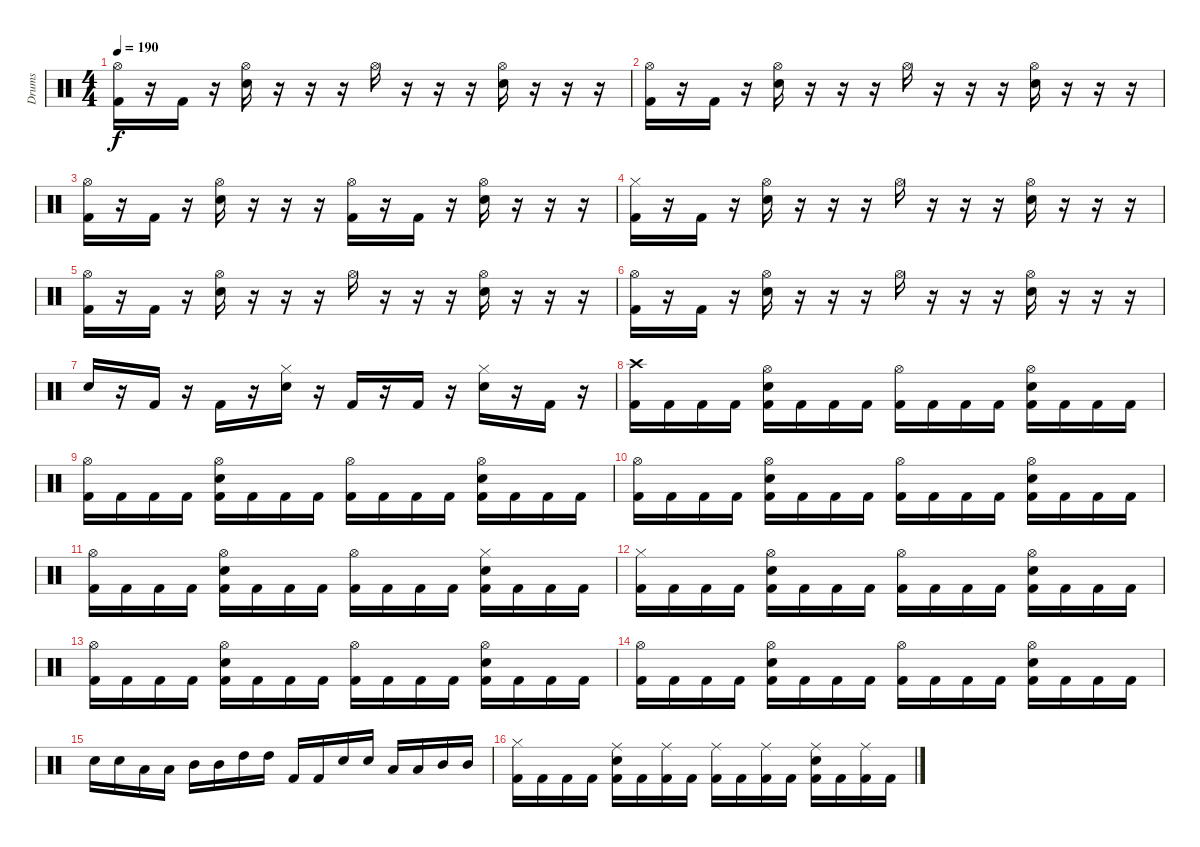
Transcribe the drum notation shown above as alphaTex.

\track ("Drums" "Drums") {instrument percussion}
\staff {score}
\articulation defaults
\ts (4 4)
\tempo 190
\clef neutral
\ks c
("Hi-Hat (open)" "Kick (hit) 2").16{dy f} r.16 "Kick (hit) 2".16 r.16 ("Hi-Hat (open)" "Electric Snare (hit)").16 r.16 r.16 r.16 "Hi-Hat (open)".16 r.16 r.16 r.16 ("Hi-Hat (open)" "Electric Snare (hit)").16 r.16 r.16 r.16 |
("Hi-Hat (open)" "Kick (hit) 2").16 r.16 "Kick (hit) 2".16 r.16 ("Hi-Hat (open)" "Electric Snare (hit)").16 r.16 r.16 r.16 "Hi-Hat (open)".16 r.16 r.16 r.16 ("Hi-Hat (open)" "Electric Snare (hit)").16 r.16 r.16 r.16 |
("Hi-Hat (open)" "Kick (hit) 2").16 r.16 "Kick (hit) 2".16 r.16 ("Hi-Hat (open)" "Electric Snare (hit)").16 r.16 r.16 r.16 ("Hi-Hat (open)" "Kick (hit) 2").16 r.16 "Kick (hit) 2".16 r.16 ("Hi-Hat (open)" "Electric Snare (hit)").16 r.16 r.16 r.16 |
("Hi-Hat (closed)" "Kick (hit) 2").16 r.16 "Kick (hit) 2".16 r.16 ("Hi-Hat (open)" "Electric Snare (hit)").16 r.16 r.16 r.16 "Hi-Hat (open)".16 r.16 r.16 r.16 ("Hi-Hat (open)" "Electric Snare (hit)").16 r.16 r.16 r.16 |
("Hi-Hat (open)" "Kick (hit) 2").16 r.16 "Kick (hit) 2".16 r.16 ("Hi-Hat (open)" "Electric Snare (hit)").16 r.16 r.16 r.16 "Hi-Hat (open)".16 r.16 r.16 r.16 ("Hi-Hat (open)" "Electric Snare (hit)").16 r.16 r.16 r.16 |
("Hi-Hat (open)" "Kick (hit) 2").16 r.16 "Kick (hit) 2".16 r.16 ("Hi-Hat (open)" "Electric Snare (hit)").16 r.16 r.16 r.16 "Hi-Hat (open)".16 r.16 r.16 r.16 ("Hi-Hat (open)" "Electric Snare (hit)").16 r.16 r.16 r.16 |
"Electric Snare (hit)".16 r.16 "Kick (hit) 2".16 r.16 "Kick (hit) 2".16 r.16 ("Hi-Hat (closed)" "Electric Snare (hit)").16 r.16 "Kick (hit) 2".16 r.16 "Kick (hit) 2".16 r.16 ("Hi-Hat (closed)" "Electric Snare (hit)").16 r.16 "Kick (hit) 2".16 r.16 |
("Crash high (hit)" "Kick (hit) 2").16 "Kick (hit) 2".16 "Kick (hit) 2".16 "Kick (hit) 2".16 ("Hi-Hat (open)" "Electric Snare (hit)" "Kick (hit) 2").16 "Kick (hit) 2".16 "Kick (hit) 2".16 "Kick (hit) 2".16 ("Hi-Hat (open)" "Kick (hit) 2").16 "Kick (hit) 2".16 "Kick (hit) 2".16 "Kick (hit) 2".16 ("Hi-Hat (open)" "Electric Snare (hit)" "Kick (hit) 2").16 "Kick (hit) 2".16 "Kick (hit) 2".16 "Kick (hit) 2".16 |
("Hi-Hat (open)" "Kick (hit) 2").16 "Kick (hit) 2".16 "Kick (hit) 2".16 "Kick (hit) 2".16 ("Hi-Hat (open)" "Electric Snare (hit)" "Kick (hit) 2").16 "Kick (hit) 2".16 "Kick (hit) 2".16 "Kick (hit) 2".16 ("Hi-Hat (open)" "Kick (hit) 2").16 "Kick (hit) 2".16 "Kick (hit) 2".16 "Kick (hit) 2".16 ("Hi-Hat (open)" "Electric Snare (hit)" "Kick (hit) 2").16 "Kick (hit) 2".16 "Kick (hit) 2".16 "Kick (hit) 2".16 |
("Hi-Hat (open)" "Kick (hit) 2").16 "Kick (hit) 2".16 "Kick (hit) 2".16 "Kick (hit) 2".16 ("Hi-Hat (open)" "Electric Snare (hit)" "Kick (hit) 2").16 "Kick (hit) 2".16 "Kick (hit) 2".16 "Kick (hit) 2".16 ("Hi-Hat (open)" "Kick (hit) 2").16 "Kick (hit) 2".16 "Kick (hit) 2".16 "Kick (hit) 2".16 ("Hi-Hat (open)" "Electric Snare (hit)" "Kick (hit) 2").16 "Kick (hit) 2".16 "Kick (hit) 2".16 "Kick (hit) 2".16 |
("Hi-Hat (open)" "Kick (hit) 2").16 "Kick (hit) 2".16 "Kick (hit) 2".16 "Kick (hit) 2".16 ("Hi-Hat (open)" "Electric Snare (hit)" "Kick (hit) 2").16 "Kick (hit) 2".16 "Kick (hit) 2".16 "Kick (hit) 2".16 ("Hi-Hat (open)" "Kick (hit) 2").16 "Kick (hit) 2".16 "Kick (hit) 2".16 "Kick (hit) 2".16 ("Hi-Hat (closed)" "Electric Snare (hit)" "Kick (hit) 2").16 "Kick (hit) 2".16 "Kick (hit) 2".16 "Kick (hit) 2".16 |
("Hi-Hat (closed)" "Kick (hit) 2").16 "Kick (hit) 2".16 "Kick (hit) 2".16 "Kick (hit) 2".16 ("Hi-Hat (open)" "Electric Snare (hit)" "Kick (hit) 2").16 "Kick (hit) 2".16 "Kick (hit) 2".16 "Kick (hit) 2".16 ("Hi-Hat (open)" "Kick (hit) 2").16 "Kick (hit) 2".16 "Kick (hit) 2".16 "Kick (hit) 2".16 ("Hi-Hat (open)" "Electric Snare (hit)" "Kick (hit) 2").16 "Kick (hit) 2".16 "Kick (hit) 2".16 "Kick (hit) 2".16 |
("Hi-Hat (open)" "Kick (hit) 2").16 "Kick (hit) 2".16 "Kick (hit) 2".16 "Kick (hit) 2".16 ("Hi-Hat (open)" "Electric Snare (hit)" "Kick (hit) 2").16 "Kick (hit) 2".16 "Kick (hit) 2".16 "Kick (hit) 2".16 ("Hi-Hat (open)" "Kick (hit) 2").16 "Kick (hit) 2".16 "Kick (hit) 2".16 "Kick (hit) 2".16 ("Hi-Hat (open)" "Electric Snare (hit)" "Kick (hit) 2").16 "Kick (hit) 2".16 "Kick (hit) 2".16 "Kick (hit) 2".16 |
("Hi-Hat (open)" "Kick (hit) 2").16 "Kick (hit) 2".16 "Kick (hit) 2".16 "Kick (hit) 2".16 ("Hi-Hat (open)" "Electric Snare (hit)" "Kick (hit) 2").16 "Kick (hit) 2".16 "Kick (hit) 2".16 "Kick (hit) 2".16 ("Hi-Hat (open)" "Kick (hit) 2").16 "Kick (hit) 2".16 "Kick (hit) 2".16 "Kick (hit) 2".16 ("Hi-Hat (open)" "Electric Snare (hit)" "Kick (hit) 2").16 "Kick (hit) 2".16 "Kick (hit) 2".16 "Kick (hit) 2".16 |
"Electric Snare (hit)".16 "Electric Snare (hit)".16 "Low Tom (hit)".16 "Low Tom (hit)".16 "Mid Tom (hit)".16 "Mid Tom (hit)".16 "High Tom (hit)".16 "High Tom (hit)".16 "Kick (hit) 2".16 "Kick (hit) 2".16 "Electric Snare (hit)".16 "Electric Snare (hit)".16 "Low Tom (hit)".16 "Low Tom (hit)".16 "Mid Tom (hit)".16 "Mid Tom (hit)".16 |
("Hi-Hat (closed)" "Kick (hit) 2").16 "Kick (hit) 2".16 "Kick (hit) 2".16 "Kick (hit) 2".16 ("Ride (middle)" "Electric Snare (hit)" "Kick (hit) 2").16 "Kick (hit) 2".16 ("Ride (middle)" "Kick (hit) 2").16 "Kick (hit) 2".16 ("Ride (middle)" "Kick (hit) 2").16 "Kick (hit) 2".16 ("Ride (middle)" "Kick (hit) 2").16 "Kick (hit) 2".16 ("Ride (middle)" "Electric Snare (hit)" "Kick (hit) 2").16 "Kick (hit) 2".16 ("Ride (middle)" "Kick (hit) 2").16 "Kick (hit) 2".16
